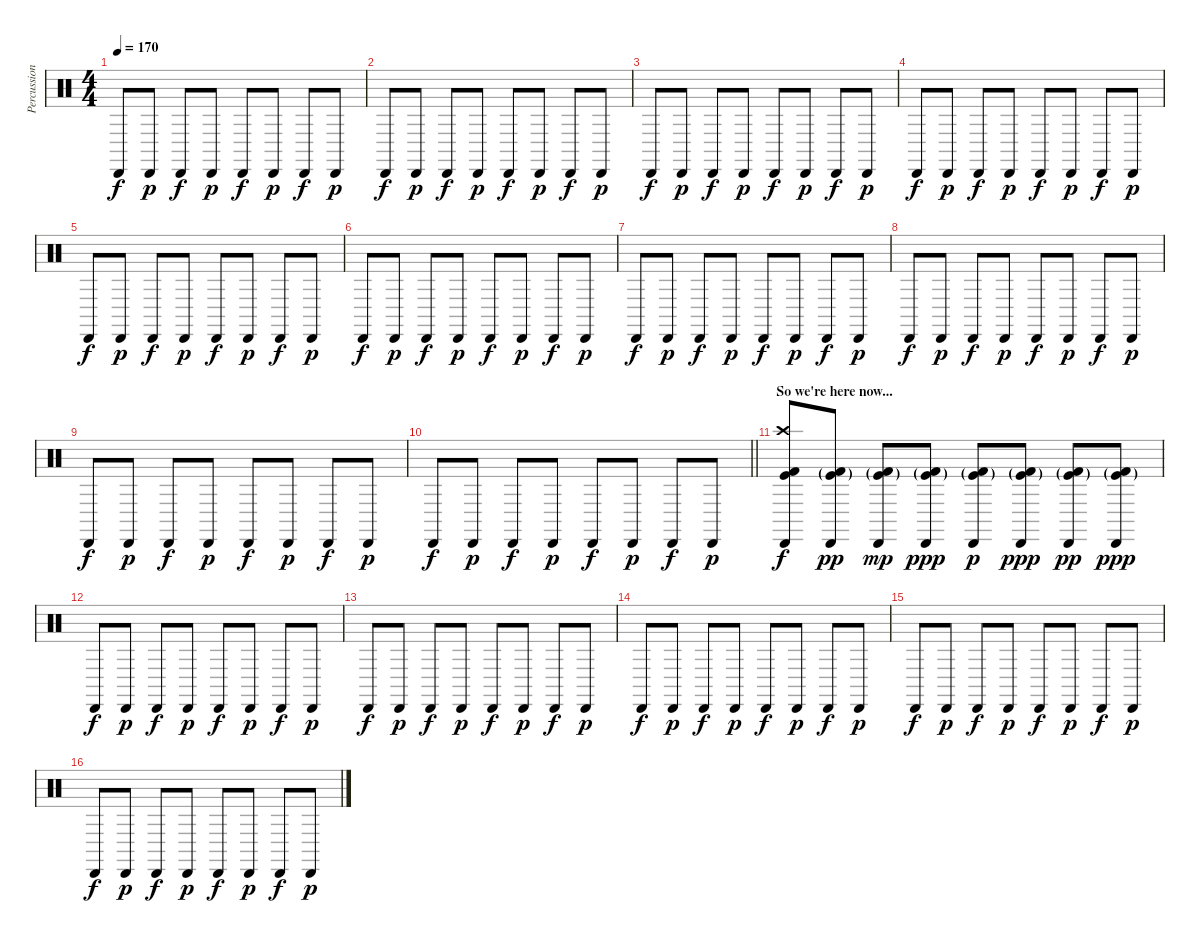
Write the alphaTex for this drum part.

\track ("Percussion" "Percussion") {instrument percussion}
\staff {score}
\articulation defaults
\ts (4 4)
\tempo 170
\clef neutral
\ks c "Cabasa (hit)".8{dy f} "Cabasa (hit)".8{dy p} "Cabasa (hit)".8{dy f} "Cabasa (hit)".8{dy p} "Cabasa (hit)".8{dy f} "Cabasa (hit)".8{dy p} "Cabasa (hit)".8{dy f} "Cabasa (hit)".8{dy p}
|
"Cabasa (hit)".8{dy f} "Cabasa (hit)".8{dy p} "Cabasa (hit)".8{dy f} "Cabasa (hit)".8{dy p} "Cabasa (hit)".8{dy f} "Cabasa (hit)".8{dy p} "Cabasa (hit)".8{dy f} "Cabasa (hit)".8{dy p} |
"Cabasa (hit)".8{dy f} "Cabasa (hit)".8{dy p} "Cabasa (hit)".8{dy f} "Cabasa (hit)".8{dy p} "Cabasa (hit)".8{dy f} "Cabasa (hit)".8{dy p} "Cabasa (hit)".8{dy f} "Cabasa (hit)".8{dy p} |
"Cabasa (hit)".8{dy f} "Cabasa (hit)".8{dy p} "Cabasa (hit)".8{dy f} "Cabasa (hit)".8{dy p} "Cabasa (hit)".8{dy f} "Cabasa (hit)".8{dy p} "Cabasa (hit)".8{dy f} "Cabasa (hit)".8{dy p} |
"Cabasa (hit)".8{dy f} "Cabasa (hit)".8{dy p} "Cabasa (hit)".8{dy f} "Cabasa (hit)".8{dy p} "Cabasa (hit)".8{dy f} "Cabasa (hit)".8{dy p} "Cabasa (hit)".8{dy f} "Cabasa (hit)".8{dy p} |
"Cabasa (hit)".8{dy f} "Cabasa (hit)".8{dy p} "Cabasa (hit)".8{dy f} "Cabasa (hit)".8{dy p} "Cabasa (hit)".8{dy f} "Cabasa (hit)".8{dy p} "Cabasa (hit)".8{dy f} "Cabasa (hit)".8{dy p} |
"Cabasa (hit)".8{dy f} "Cabasa (hit)".8{dy p} "Cabasa (hit)".8{dy f} "Cabasa (hit)".8{dy p} "Cabasa (hit)".8{dy f} "Cabasa (hit)".8{dy p} "Cabasa (hit)".8{dy f} "Cabasa (hit)".8{dy p} |
"Cabasa (hit)".8{dy f} "Cabasa (hit)".8{dy p} "Cabasa (hit)".8{dy f} "Cabasa (hit)".8{dy p} "Cabasa (hit)".8{dy f} "Cabasa (hit)".8{dy p} "Cabasa (hit)".8{dy f} "Cabasa (hit)".8{dy p} |
"Cabasa (hit)".8{dy f} "Cabasa (hit)".8{dy p} "Cabasa (hit)".8{dy f} "Cabasa (hit)".8{dy p} "Cabasa (hit)".8{dy f} "Cabasa (hit)".8{dy p} "Cabasa (hit)".8{dy f} "Cabasa (hit)".8{dy p} |
\barLineRight lightlight "Cabasa (hit)".8{dy f} "Cabasa (hit)".8{dy p} "Cabasa (hit)".8{dy f} "Cabasa (hit)".8{dy p} "Cabasa (hit)".8{dy f} "Cabasa (hit)".8{dy p} "Cabasa (hit)".8{dy f} "Cabasa (hit)".8{dy p}
|
\section ("" "So we're here now...")
("Cabasa (hit)" "Kick (hit)" "Kick (hit) 2" "Crash high (hit)").8{dy f} ("Cabasa (hit)" "Kick (hit)"{g} "Kick (hit) 2"{g}).8{dy pp} ("Cabasa (hit)" "Kick (hit)"{g} "Kick (hit) 2"{g}).8{dy mp} ("Cabasa (hit)" "Kick (hit)"{g} "Kick (hit) 2"{g}).8{dy ppp} ("Cabasa (hit)" "Kick (hit)"{g} "Kick (hit) 2"{g}).8{dy p} ("Cabasa (hit)" "Kick (hit)"{g} "Kick (hit) 2"{g}).8{dy ppp} ("Cabasa (hit)" "Kick (hit)"{g} "Kick (hit) 2"{g}).8{dy pp} ("Cabasa (hit)" "Kick (hit)"{g} "Kick (hit) 2"{g}).8{dy ppp} |
"Cabasa (hit)".8{dy f} "Cabasa (hit)".8{dy p} "Cabasa (hit)".8{dy f} "Cabasa (hit)".8{dy p} "Cabasa (hit)".8{dy f} "Cabasa (hit)".8{dy p} "Cabasa (hit)".8{dy f} "Cabasa (hit)".8{dy p} |
"Cabasa (hit)".8{dy f} "Cabasa (hit)".8{dy p} "Cabasa (hit)".8{dy f} "Cabasa (hit)".8{dy p} "Cabasa (hit)".8{dy f} "Cabasa (hit)".8{dy p} "Cabasa (hit)".8{dy f} "Cabasa (hit)".8{dy p} |
"Cabasa (hit)".8{dy f} "Cabasa (hit)".8{dy p} "Cabasa (hit)".8{dy f} "Cabasa (hit)".8{dy p} "Cabasa (hit)".8{dy f} "Cabasa (hit)".8{dy p} "Cabasa (hit)".8{dy f} "Cabasa (hit)".8{dy p} |
"Cabasa (hit)".8{dy f} "Cabasa (hit)".8{dy p} "Cabasa (hit)".8{dy f} "Cabasa (hit)".8{dy p} "Cabasa (hit)".8{dy f} "Cabasa (hit)".8{dy p} "Cabasa (hit)".8{dy f} "Cabasa (hit)".8{dy p} |
"Cabasa (hit)".8{dy f} "Cabasa (hit)".8{dy p} "Cabasa (hit)".8{dy f} "Cabasa (hit)".8{dy p} "Cabasa (hit)".8{dy f} "Cabasa (hit)".8{dy p} "Cabasa (hit)".8{dy f} "Cabasa (hit)".8{dy p}
